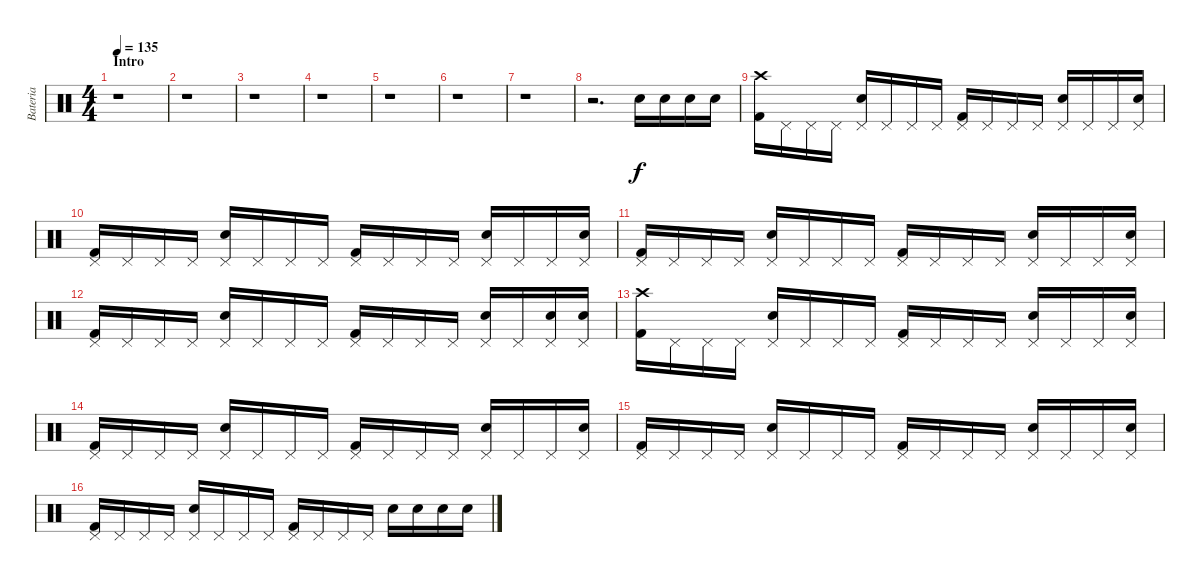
\track ("Bateria" "Bateria") {instrument percussion}
\staff {score}
\articulation defaults
\ts (4 4)
\section ("" "Intro")
\tempo 135
\clef neutral
\ks c
r.1{dy f} |
r.1 |
r.1 |
r.1 |
r.1 |
r.1 |
r.1 |
r.2{d} "Electric Snare (hit)".16 "Electric Snare (hit)".16 "Electric Snare (hit)".16 "Electric Snare (hit)".16 |
("Crash high (hit)" "Kick (hit) 2").16 "Pedal Hi-Hat (hit)".16 "Pedal Hi-Hat (hit)".16 "Pedal Hi-Hat (hit)".16 ("Pedal Hi-Hat (hit)" "Electric Snare (hit)").16 "Pedal Hi-Hat (hit)".16 "Pedal Hi-Hat (hit)".16 "Pedal Hi-Hat (hit)".16 ("Pedal Hi-Hat (hit)" "Kick (hit) 2").16 "Pedal Hi-Hat (hit)".16 "Pedal Hi-Hat (hit)".16 "Pedal Hi-Hat (hit)".16 ("Pedal Hi-Hat (hit)" "Electric Snare (hit)").16 "Pedal Hi-Hat (hit)".16 "Pedal Hi-Hat (hit)".16 ("Pedal Hi-Hat (hit)" "Electric Snare (hit)").16 |
("Pedal Hi-Hat (hit)" "Kick (hit) 2").16 "Pedal Hi-Hat (hit)".16 "Pedal Hi-Hat (hit)".16 "Pedal Hi-Hat (hit)".16 ("Pedal Hi-Hat (hit)" "Electric Snare (hit)").16 "Pedal Hi-Hat (hit)".16 "Pedal Hi-Hat (hit)".16 "Pedal Hi-Hat (hit)".16 ("Pedal Hi-Hat (hit)" "Kick (hit) 2").16 "Pedal Hi-Hat (hit)".16 "Pedal Hi-Hat (hit)".16 "Pedal Hi-Hat (hit)".16 ("Pedal Hi-Hat (hit)" "Electric Snare (hit)").16 "Pedal Hi-Hat (hit)".16 "Pedal Hi-Hat (hit)".16 ("Pedal Hi-Hat (hit)" "Electric Snare (hit)").16 |
("Pedal Hi-Hat (hit)" "Kick (hit) 2").16 "Pedal Hi-Hat (hit)".16 "Pedal Hi-Hat (hit)".16 "Pedal Hi-Hat (hit)".16 ("Pedal Hi-Hat (hit)" "Electric Snare (hit)").16 "Pedal Hi-Hat (hit)".16 "Pedal Hi-Hat (hit)".16 "Pedal Hi-Hat (hit)".16 ("Pedal Hi-Hat (hit)" "Kick (hit) 2").16 "Pedal Hi-Hat (hit)".16 "Pedal Hi-Hat (hit)".16 "Pedal Hi-Hat (hit)".16 ("Pedal Hi-Hat (hit)" "Electric Snare (hit)").16 "Pedal Hi-Hat (hit)".16 "Pedal Hi-Hat (hit)".16 ("Pedal Hi-Hat (hit)" "Electric Snare (hit)").16 |
("Pedal Hi-Hat (hit)" "Kick (hit) 2").16 "Pedal Hi-Hat (hit)".16 "Pedal Hi-Hat (hit)".16 "Pedal Hi-Hat (hit)".16 ("Pedal Hi-Hat (hit)" "Electric Snare (hit)").16 "Pedal Hi-Hat (hit)".16 "Pedal Hi-Hat (hit)".16 "Pedal Hi-Hat (hit)".16 ("Pedal Hi-Hat (hit)" "Kick (hit) 2").16 "Pedal Hi-Hat (hit)".16 "Pedal Hi-Hat (hit)".16 "Pedal Hi-Hat (hit)".16 ("Pedal Hi-Hat (hit)" "Electric Snare (hit)").16 "Pedal Hi-Hat (hit)".16 ("Pedal Hi-Hat (hit)" "Electric Snare (hit)").16 ("Pedal Hi-Hat (hit)" "Electric Snare (hit)").16 |
("Crash high (hit)" "Kick (hit) 2").16 "Pedal Hi-Hat (hit)".16 "Pedal Hi-Hat (hit)".16 "Pedal Hi-Hat (hit)".16 ("Pedal Hi-Hat (hit)" "Electric Snare (hit)").16 "Pedal Hi-Hat (hit)".16 "Pedal Hi-Hat (hit)".16 "Pedal Hi-Hat (hit)".16 ("Pedal Hi-Hat (hit)" "Kick (hit) 2").16 "Pedal Hi-Hat (hit)".16 "Pedal Hi-Hat (hit)".16 "Pedal Hi-Hat (hit)".16 ("Pedal Hi-Hat (hit)" "Electric Snare (hit)").16 "Pedal Hi-Hat (hit)".16 "Pedal Hi-Hat (hit)".16 ("Pedal Hi-Hat (hit)" "Electric Snare (hit)").16 |
("Pedal Hi-Hat (hit)" "Kick (hit) 2").16 "Pedal Hi-Hat (hit)".16 "Pedal Hi-Hat (hit)".16 "Pedal Hi-Hat (hit)".16 ("Pedal Hi-Hat (hit)" "Electric Snare (hit)").16 "Pedal Hi-Hat (hit)".16 "Pedal Hi-Hat (hit)".16 "Pedal Hi-Hat (hit)".16 ("Pedal Hi-Hat (hit)" "Kick (hit) 2").16 "Pedal Hi-Hat (hit)".16 "Pedal Hi-Hat (hit)".16 "Pedal Hi-Hat (hit)".16 ("Pedal Hi-Hat (hit)" "Electric Snare (hit)").16 "Pedal Hi-Hat (hit)".16 "Pedal Hi-Hat (hit)".16 ("Pedal Hi-Hat (hit)" "Electric Snare (hit)").16 |
("Pedal Hi-Hat (hit)" "Kick (hit) 2").16 "Pedal Hi-Hat (hit)".16 "Pedal Hi-Hat (hit)".16 "Pedal Hi-Hat (hit)".16 ("Pedal Hi-Hat (hit)" "Electric Snare (hit)").16 "Pedal Hi-Hat (hit)".16 "Pedal Hi-Hat (hit)".16 "Pedal Hi-Hat (hit)".16 ("Pedal Hi-Hat (hit)" "Kick (hit) 2").16 "Pedal Hi-Hat (hit)".16 "Pedal Hi-Hat (hit)".16 "Pedal Hi-Hat (hit)".16 ("Pedal Hi-Hat (hit)" "Electric Snare (hit)").16 "Pedal Hi-Hat (hit)".16 "Pedal Hi-Hat (hit)".16 ("Pedal Hi-Hat (hit)" "Electric Snare (hit)").16 |
("Pedal Hi-Hat (hit)" "Kick (hit) 2").16 "Pedal Hi-Hat (hit)".16 "Pedal Hi-Hat (hit)".16 "Pedal Hi-Hat (hit)".16 ("Pedal Hi-Hat (hit)" "Electric Snare (hit)").16 "Pedal Hi-Hat (hit)".16 "Pedal Hi-Hat (hit)".16 "Pedal Hi-Hat (hit)".16 ("Pedal Hi-Hat (hit)" "Kick (hit) 2").16 "Pedal Hi-Hat (hit)".16 "Pedal Hi-Hat (hit)".16 "Pedal Hi-Hat (hit)".16 "Electric Snare (hit)".16 "Electric Snare (hit)".16 "Electric Snare (hit)".16 "Electric Snare (hit)".16
